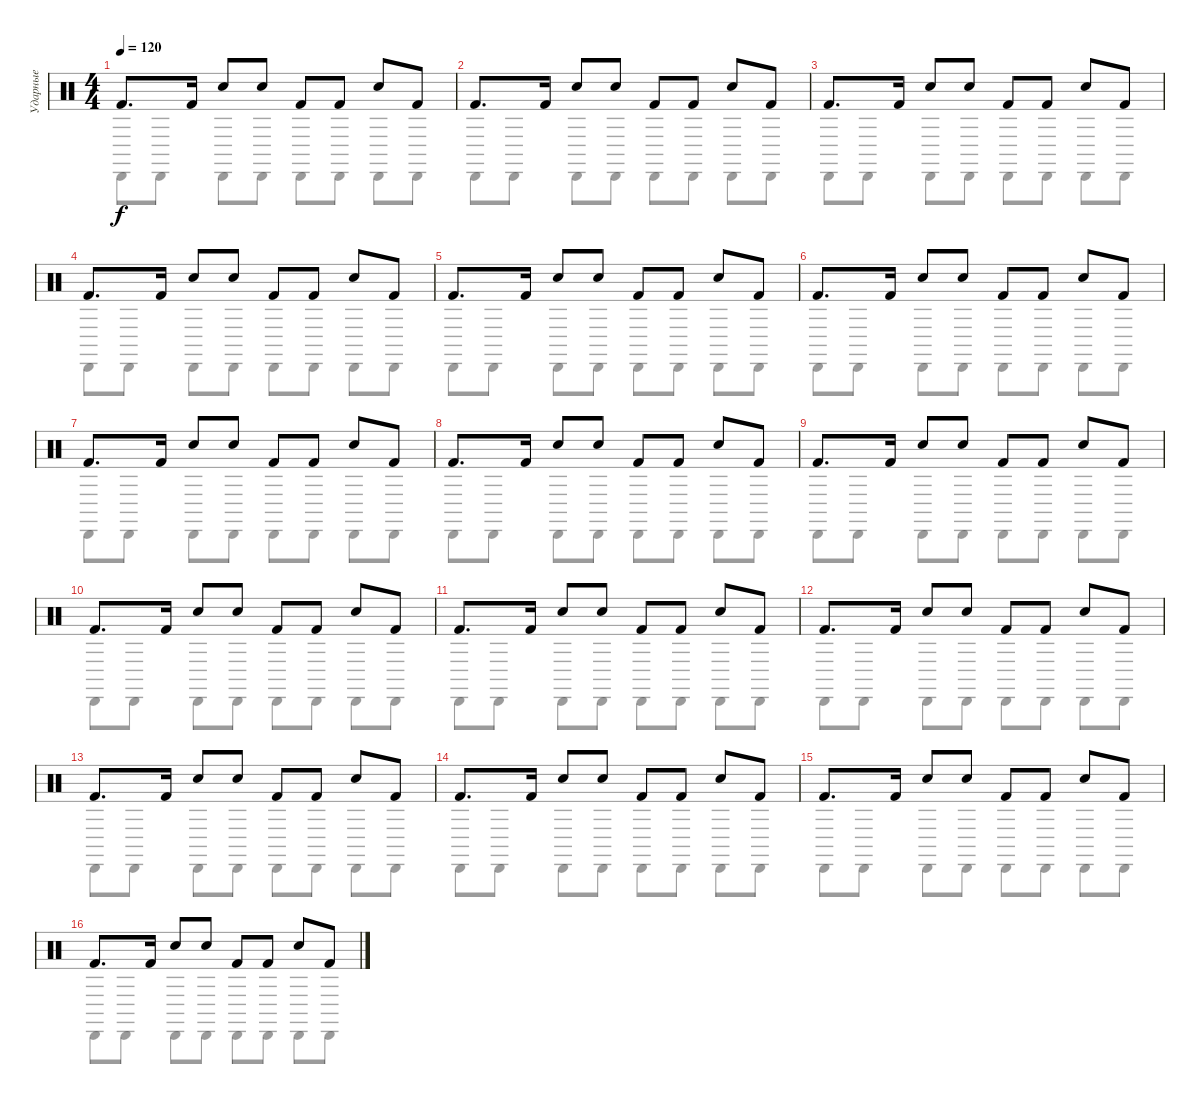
\track ("Ударные" "Ударные") {instrument percussion}
\staff {score}
\articulation defaults
\voice
\ts (4 4)
\tempo 120
\clef neutral
\ks c "Kick (hit) 2".8{d dy f} "Kick (hit) 2".16 "Hand Clap (hit)".8 "Hand Clap (hit)".8 "Kick (hit) 2".8 "Kick (hit) 2".8 "Hand Clap (hit)".8 "Kick (hit) 2".8
|
"Kick (hit) 2".8{d} "Kick (hit) 2".16 "Hand Clap (hit)".8 "Hand Clap (hit)".8 "Kick (hit) 2".8 "Kick (hit) 2".8 "Hand Clap (hit)".8 "Kick (hit) 2".8 |
"Kick (hit) 2".8{d} "Kick (hit) 2".16 "Hand Clap (hit)".8 "Hand Clap (hit)".8 "Kick (hit) 2".8 "Kick (hit) 2".8 "Hand Clap (hit)".8 "Kick (hit) 2".8 |
"Kick (hit) 2".8{d} "Kick (hit) 2".16 "Hand Clap (hit)".8 "Hand Clap (hit)".8 "Kick (hit) 2".8 "Kick (hit) 2".8 "Hand Clap (hit)".8 "Kick (hit) 2".8 |
"Kick (hit) 2".8{d} "Kick (hit) 2".16 "Hand Clap (hit)".8 "Hand Clap (hit)".8 "Kick (hit) 2".8 "Kick (hit) 2".8 "Hand Clap (hit)".8 "Kick (hit) 2".8 |
"Kick (hit) 2".8{d} "Kick (hit) 2".16 "Hand Clap (hit)".8 "Hand Clap (hit)".8 "Kick (hit) 2".8 "Kick (hit) 2".8 "Hand Clap (hit)".8 "Kick (hit) 2".8 |
"Kick (hit) 2".8{d} "Kick (hit) 2".16 "Hand Clap (hit)".8 "Hand Clap (hit)".8 "Kick (hit) 2".8 "Kick (hit) 2".8 "Hand Clap (hit)".8 "Kick (hit) 2".8 |
"Kick (hit) 2".8{d} "Kick (hit) 2".16 "Hand Clap (hit)".8 "Hand Clap (hit)".8 "Kick (hit) 2".8 "Kick (hit) 2".8 "Hand Clap (hit)".8 "Kick (hit) 2".8 |
"Kick (hit) 2".8{d} "Kick (hit) 2".16 "Hand Clap (hit)".8 "Hand Clap (hit)".8 "Kick (hit) 2".8 "Kick (hit) 2".8 "Hand Clap (hit)".8 "Kick (hit) 2".8 |
"Kick (hit) 2".8{d} "Kick (hit) 2".16 "Hand Clap (hit)".8 "Hand Clap (hit)".8 "Kick (hit) 2".8 "Kick (hit) 2".8 "Hand Clap (hit)".8 "Kick (hit) 2".8 |
"Kick (hit) 2".8{d} "Kick (hit) 2".16 "Hand Clap (hit)".8 "Hand Clap (hit)".8 "Kick (hit) 2".8 "Kick (hit) 2".8 "Hand Clap (hit)".8 "Kick (hit) 2".8 |
"Kick (hit) 2".8{d} "Kick (hit) 2".16 "Hand Clap (hit)".8 "Hand Clap (hit)".8 "Kick (hit) 2".8 "Kick (hit) 2".8 "Hand Clap (hit)".8 "Kick (hit) 2".8 |
"Kick (hit) 2".8{d} "Kick (hit) 2".16 "Hand Clap (hit)".8 "Hand Clap (hit)".8 "Kick (hit) 2".8 "Kick (hit) 2".8 "Hand Clap (hit)".8 "Kick (hit) 2".8 |
"Kick (hit) 2".8{d} "Kick (hit) 2".16 "Hand Clap (hit)".8 "Hand Clap (hit)".8 "Kick (hit) 2".8 "Kick (hit) 2".8 "Hand Clap (hit)".8 "Kick (hit) 2".8 |
"Kick (hit) 2".8{d} "Kick (hit) 2".16 "Hand Clap (hit)".8 "Hand Clap (hit)".8 "Kick (hit) 2".8 "Kick (hit) 2".8 "Hand Clap (hit)".8 "Kick (hit) 2".8 |
"Kick (hit) 2".8{d} "Kick (hit) 2".16 "Hand Clap (hit)".8 "Hand Clap (hit)".8 "Kick (hit) 2".8 "Kick (hit) 2".8 "Hand Clap (hit)".8 "Kick (hit) 2".8
\voice
\clef neutral
\ottava regular
\simile none
\ks c "Cabasa (hit)".8{dy f} "Cabasa (hit)".8 "Cabasa (hit)".8 "Cabasa (hit)".8 "Cabasa (hit)".8 "Cabasa (hit)".8 "Cabasa (hit)".8 "Cabasa (hit)".8
|
"Cabasa (hit)".8 "Cabasa (hit)".8 "Cabasa (hit)".8 "Cabasa (hit)".8 "Cabasa (hit)".8 "Cabasa (hit)".8 "Cabasa (hit)".8 "Cabasa (hit)".8 |
"Cabasa (hit)".8 "Cabasa (hit)".8 "Cabasa (hit)".8 "Cabasa (hit)".8 "Cabasa (hit)".8 "Cabasa (hit)".8 "Cabasa (hit)".8 "Cabasa (hit)".8 |
"Cabasa (hit)".8 "Cabasa (hit)".8 "Cabasa (hit)".8 "Cabasa (hit)".8 "Cabasa (hit)".8 "Cabasa (hit)".8 "Cabasa (hit)".8 "Cabasa (hit)".8 |
"Cabasa (hit)".8 "Cabasa (hit)".8 "Cabasa (hit)".8 "Cabasa (hit)".8 "Cabasa (hit)".8 "Cabasa (hit)".8 "Cabasa (hit)".8 "Cabasa (hit)".8 |
"Cabasa (hit)".8 "Cabasa (hit)".8 "Cabasa (hit)".8 "Cabasa (hit)".8 "Cabasa (hit)".8 "Cabasa (hit)".8 "Cabasa (hit)".8 "Cabasa (hit)".8 |
"Cabasa (hit)".8 "Cabasa (hit)".8 "Cabasa (hit)".8 "Cabasa (hit)".8 "Cabasa (hit)".8 "Cabasa (hit)".8 "Cabasa (hit)".8 "Cabasa (hit)".8 |
"Cabasa (hit)".8 "Cabasa (hit)".8 "Cabasa (hit)".8 "Cabasa (hit)".8 "Cabasa (hit)".8 "Cabasa (hit)".8 "Cabasa (hit)".8 "Cabasa (hit)".8 |
"Cabasa (hit)".8 "Cabasa (hit)".8 "Cabasa (hit)".8 "Cabasa (hit)".8 "Cabasa (hit)".8 "Cabasa (hit)".8 "Cabasa (hit)".8 "Cabasa (hit)".8 |
"Cabasa (hit)".8 "Cabasa (hit)".8 "Cabasa (hit)".8 "Cabasa (hit)".8 "Cabasa (hit)".8 "Cabasa (hit)".8 "Cabasa (hit)".8 "Cabasa (hit)".8 |
"Cabasa (hit)".8 "Cabasa (hit)".8 "Cabasa (hit)".8 "Cabasa (hit)".8 "Cabasa (hit)".8 "Cabasa (hit)".8 "Cabasa (hit)".8 "Cabasa (hit)".8 |
"Cabasa (hit)".8 "Cabasa (hit)".8 "Cabasa (hit)".8 "Cabasa (hit)".8 "Cabasa (hit)".8 "Cabasa (hit)".8 "Cabasa (hit)".8 "Cabasa (hit)".8 |
"Cabasa (hit)".8 "Cabasa (hit)".8 "Cabasa (hit)".8 "Cabasa (hit)".8 "Cabasa (hit)".8 "Cabasa (hit)".8 "Cabasa (hit)".8 "Cabasa (hit)".8 |
"Cabasa (hit)".8 "Cabasa (hit)".8 "Cabasa (hit)".8 "Cabasa (hit)".8 "Cabasa (hit)".8 "Cabasa (hit)".8 "Cabasa (hit)".8 "Cabasa (hit)".8 |
"Cabasa (hit)".8 "Cabasa (hit)".8 "Cabasa (hit)".8 "Cabasa (hit)".8 "Cabasa (hit)".8 "Cabasa (hit)".8 "Cabasa (hit)".8 "Cabasa (hit)".8 |
"Cabasa (hit)".8 "Cabasa (hit)".8 "Cabasa (hit)".8 "Cabasa (hit)".8 "Cabasa (hit)".8 "Cabasa (hit)".8 "Cabasa (hit)".8 "Cabasa (hit)".8
